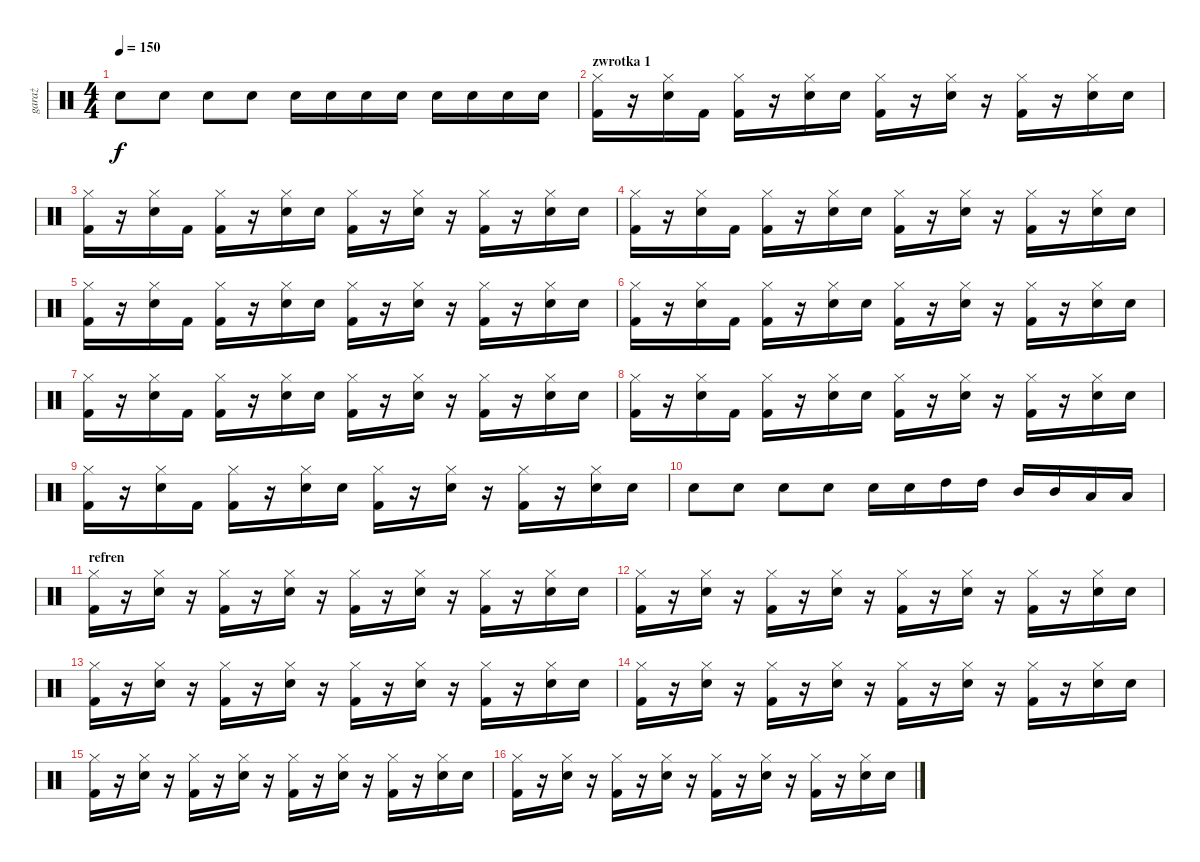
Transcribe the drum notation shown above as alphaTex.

\track ("garaż" "garaż") {instrument percussion}
\staff {score}
\articulation defaults
\ts (4 4)
\tempo 150
\clef neutral
\ks c "Snare (hit) 2".8{dy f} "Snare (hit) 2".8 "Snare (hit) 2".8 "Snare (hit) 2".8 "Snare (hit) 2".16 "Snare (hit) 2".16 "Snare (hit) 2".16 "Snare (hit) 2".16 "Snare (hit) 2".16 "Snare (hit) 2".16 "Snare (hit) 2".16 "Snare (hit) 2".16
|
\section ("" "zwrotka 1")
("Kick (hit) 2" "Hi-Hat (closed)").16 r.16 ("Snare (hit) 2" "Hi-Hat (closed)").16 "Kick (hit) 2".16 ("Kick (hit) 2" "Hi-Hat (closed)").16 r.16 ("Snare (hit) 2" "Hi-Hat (closed)").16 "Snare (hit) 2".16 ("Kick (hit) 2" "Hi-Hat (closed)").16 r.16 ("Snare (hit) 2" "Hi-Hat (closed)").16 r.16 ("Kick (hit) 2" "Hi-Hat (closed)").16 r.16 ("Snare (hit) 2" "Hi-Hat (closed)").16 "Snare (hit) 2".16 |
("Kick (hit) 2" "Hi-Hat (closed)").16 r.16 ("Snare (hit) 2" "Hi-Hat (closed)").16 "Kick (hit) 2".16 ("Kick (hit) 2" "Hi-Hat (closed)").16 r.16 ("Snare (hit) 2" "Hi-Hat (closed)").16 "Snare (hit) 2".16 ("Kick (hit) 2" "Hi-Hat (closed)").16 r.16 ("Snare (hit) 2" "Hi-Hat (closed)").16 r.16 ("Kick (hit) 2" "Hi-Hat (closed)").16 r.16 ("Snare (hit) 2" "Hi-Hat (closed)").16 "Snare (hit) 2".16 |
("Kick (hit) 2" "Hi-Hat (closed)").16 r.16 ("Snare (hit) 2" "Hi-Hat (closed)").16 "Kick (hit) 2".16 ("Kick (hit) 2" "Hi-Hat (closed)").16 r.16 ("Snare (hit) 2" "Hi-Hat (closed)").16 "Snare (hit) 2".16 ("Kick (hit) 2" "Hi-Hat (closed)").16 r.16 ("Snare (hit) 2" "Hi-Hat (closed)").16 r.16 ("Kick (hit) 2" "Hi-Hat (closed)").16 r.16 ("Snare (hit) 2" "Hi-Hat (closed)").16 "Snare (hit) 2".16 |
("Kick (hit) 2" "Hi-Hat (closed)").16 r.16 ("Snare (hit) 2" "Hi-Hat (closed)").16 "Kick (hit) 2".16 ("Kick (hit) 2" "Hi-Hat (closed)").16 r.16 ("Snare (hit) 2" "Hi-Hat (closed)").16 "Snare (hit) 2".16 ("Kick (hit) 2" "Hi-Hat (closed)").16 r.16 ("Snare (hit) 2" "Hi-Hat (closed)").16 r.16 ("Kick (hit) 2" "Hi-Hat (closed)").16 r.16 ("Snare (hit) 2" "Hi-Hat (closed)").16 "Snare (hit) 2".16 |
("Kick (hit) 2" "Hi-Hat (closed)").16 r.16 ("Snare (hit) 2" "Hi-Hat (closed)").16 "Kick (hit) 2".16 ("Kick (hit) 2" "Hi-Hat (closed)").16 r.16 ("Snare (hit) 2" "Hi-Hat (closed)").16 "Snare (hit) 2".16 ("Kick (hit) 2" "Hi-Hat (closed)").16 r.16 ("Snare (hit) 2" "Hi-Hat (closed)").16 r.16 ("Kick (hit) 2" "Hi-Hat (closed)").16 r.16 ("Snare (hit) 2" "Hi-Hat (closed)").16 "Snare (hit) 2".16 |
("Kick (hit) 2" "Hi-Hat (closed)").16 r.16 ("Snare (hit) 2" "Hi-Hat (closed)").16 "Kick (hit) 2".16 ("Kick (hit) 2" "Hi-Hat (closed)").16 r.16 ("Snare (hit) 2" "Hi-Hat (closed)").16 "Snare (hit) 2".16 ("Kick (hit) 2" "Hi-Hat (closed)").16 r.16 ("Snare (hit) 2" "Hi-Hat (closed)").16 r.16 ("Kick (hit) 2" "Hi-Hat (closed)").16 r.16 ("Snare (hit) 2" "Hi-Hat (closed)").16 "Snare (hit) 2".16 |
("Kick (hit) 2" "Hi-Hat (closed)").16 r.16 ("Snare (hit) 2" "Hi-Hat (closed)").16 "Kick (hit) 2".16 ("Kick (hit) 2" "Hi-Hat (closed)").16 r.16 ("Snare (hit) 2" "Hi-Hat (closed)").16 "Snare (hit) 2".16 ("Kick (hit) 2" "Hi-Hat (closed)").16 r.16 ("Snare (hit) 2" "Hi-Hat (closed)").16 r.16 ("Kick (hit) 2" "Hi-Hat (closed)").16 r.16 ("Snare (hit) 2" "Hi-Hat (closed)").16 "Snare (hit) 2".16 |
("Kick (hit) 2" "Hi-Hat (closed)").16 r.16 ("Snare (hit) 2" "Hi-Hat (closed)").16 "Kick (hit) 2".16 ("Kick (hit) 2" "Hi-Hat (closed)").16 r.16 ("Snare (hit) 2" "Hi-Hat (closed)").16 "Snare (hit) 2".16 ("Kick (hit) 2" "Hi-Hat (closed)").16 r.16 ("Snare (hit) 2" "Hi-Hat (closed)").16 r.16 ("Kick (hit) 2" "Hi-Hat (closed)").16 r.16 ("Snare (hit) 2" "Hi-Hat (closed)").16 "Snare (hit) 2".16 |
"Snare (hit) 2".8 "Snare (hit) 2".8 "Snare (hit) 2".8 "Snare (hit) 2".8 "Snare (hit) 2".16 "Snare (hit) 2".16 "High Tom (hit)".16 "High Tom (hit)".16 "Mid Tom (hit)".16 "Mid Tom (hit)".16 "Low Tom (hit)".16 "Low Tom (hit)".16 |
\section ("" "refren")
("Kick (hit) 2" "Hi-Hat (closed)").16 r.16 ("Snare (hit) 2" "Hi-Hat (closed)").16 r.16 ("Kick (hit) 2" "Hi-Hat (closed)").16 r.16 ("Snare (hit) 2" "Hi-Hat (closed)").16 r.16 ("Kick (hit) 2" "Hi-Hat (closed)").16 r.16 ("Snare (hit) 2" "Hi-Hat (closed)").16 r.16 ("Kick (hit) 2" "Hi-Hat (closed)").16 r.16 ("Snare (hit) 2" "Hi-Hat (closed)").16 "Snare (hit) 2".16 |
("Kick (hit) 2" "Hi-Hat (closed)").16 r.16 ("Snare (hit) 2" "Hi-Hat (closed)").16 r.16 ("Kick (hit) 2" "Hi-Hat (closed)").16 r.16 ("Snare (hit) 2" "Hi-Hat (closed)").16 r.16 ("Kick (hit) 2" "Hi-Hat (closed)").16 r.16 ("Snare (hit) 2" "Hi-Hat (closed)").16 r.16 ("Kick (hit) 2" "Hi-Hat (closed)").16 r.16 ("Snare (hit) 2" "Hi-Hat (closed)").16 "Snare (hit) 2".16 |
("Kick (hit) 2" "Hi-Hat (closed)").16 r.16 ("Snare (hit) 2" "Hi-Hat (closed)").16 r.16 ("Kick (hit) 2" "Hi-Hat (closed)").16 r.16 ("Snare (hit) 2" "Hi-Hat (closed)").16 r.16 ("Kick (hit) 2" "Hi-Hat (closed)").16 r.16 ("Snare (hit) 2" "Hi-Hat (closed)").16 r.16 ("Kick (hit) 2" "Hi-Hat (closed)").16 r.16 ("Snare (hit) 2" "Hi-Hat (closed)").16 "Snare (hit) 2".16 |
("Kick (hit) 2" "Hi-Hat (closed)").16 r.16 ("Snare (hit) 2" "Hi-Hat (closed)").16 r.16 ("Kick (hit) 2" "Hi-Hat (closed)").16 r.16 ("Snare (hit) 2" "Hi-Hat (closed)").16 r.16 ("Kick (hit) 2" "Hi-Hat (closed)").16 r.16 ("Snare (hit) 2" "Hi-Hat (closed)").16 r.16 ("Kick (hit) 2" "Hi-Hat (closed)").16 r.16 ("Snare (hit) 2" "Hi-Hat (closed)").16 "Snare (hit) 2".16 |
("Kick (hit) 2" "Hi-Hat (closed)").16 r.16 ("Snare (hit) 2" "Hi-Hat (closed)").16 r.16 ("Kick (hit) 2" "Hi-Hat (closed)").16 r.16 ("Snare (hit) 2" "Hi-Hat (closed)").16 r.16 ("Kick (hit) 2" "Hi-Hat (closed)").16 r.16 ("Snare (hit) 2" "Hi-Hat (closed)").16 r.16 ("Kick (hit) 2" "Hi-Hat (closed)").16 r.16 ("Snare (hit) 2" "Hi-Hat (closed)").16 "Snare (hit) 2".16 |
("Kick (hit) 2" "Hi-Hat (closed)").16 r.16 ("Snare (hit) 2" "Hi-Hat (closed)").16 r.16 ("Kick (hit) 2" "Hi-Hat (closed)").16 r.16 ("Snare (hit) 2" "Hi-Hat (closed)").16 r.16 ("Kick (hit) 2" "Hi-Hat (closed)").16 r.16 ("Snare (hit) 2" "Hi-Hat (closed)").16 r.16 ("Kick (hit) 2" "Hi-Hat (closed)").16 r.16 ("Snare (hit) 2" "Hi-Hat (closed)").16 "Snare (hit) 2".16
